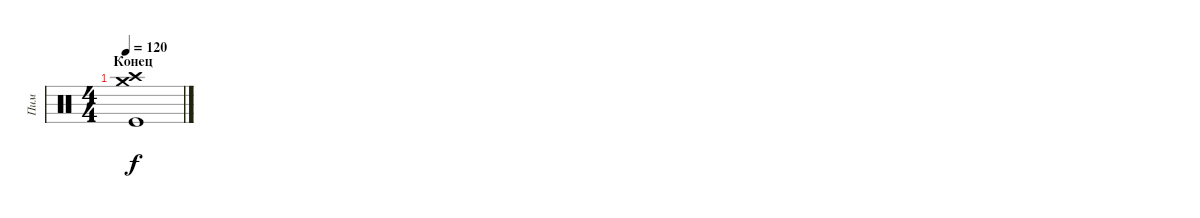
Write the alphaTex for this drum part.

\track ("Пим" "Пим") {instrument percussion}
\staff {score}
\articulation defaults
\ts (4 4)
\section ("" "Конец")
\tempo 120
\clef neutral
\ks c
("Crash high (hit)" "Crash medium (hit)" "Kick (hit)").1{dy f}
